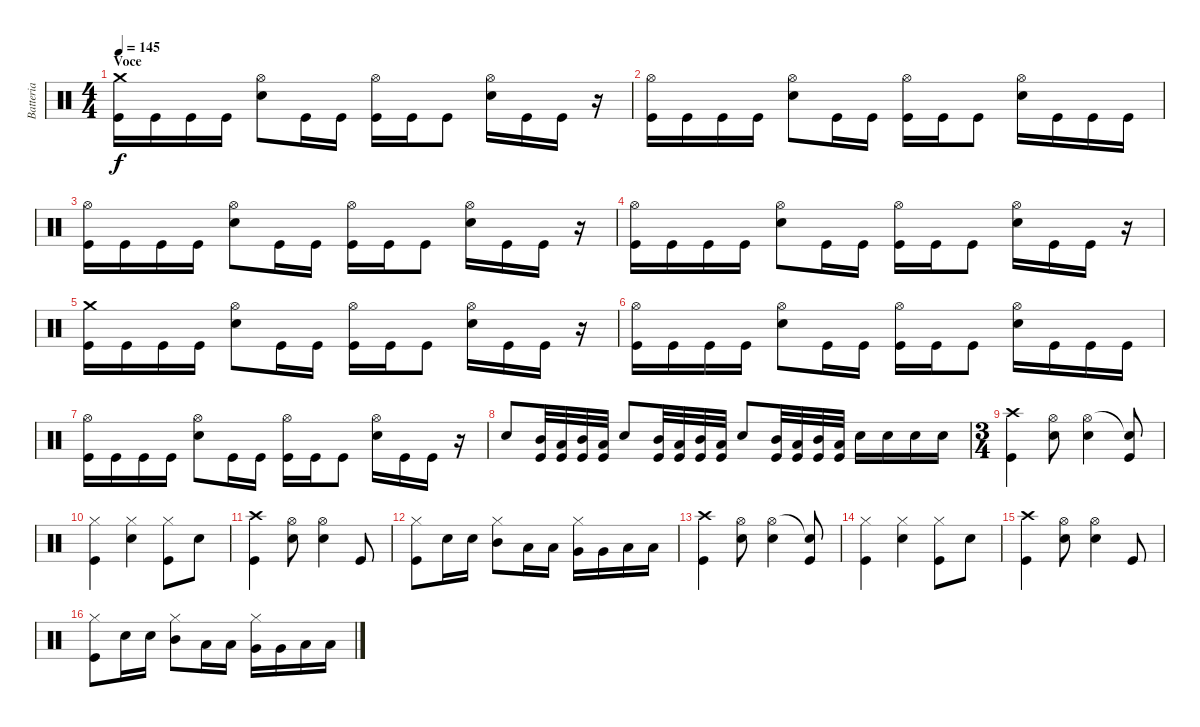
\track ("Batteria" "Batteria") {instrument percussion}
\staff {score}
\articulation defaults
\ts (4 4)
\section ("" "Voce")
\tempo 145
\clef neutral
\ks c
("Crash medium (hit)" "Kick (hit)").16{dy f} "Kick (hit)".16 "Kick (hit)".16 "Kick (hit)".16 ("Hi-Hat (open)" "Electric Snare (hit)").8 "Kick (hit)".16 "Kick (hit)".16 ("Hi-Hat (open)" "Kick (hit)").16 "Kick (hit)".16 "Kick (hit)".8 ("Hi-Hat (open)" "Electric Snare (hit)").16 "Kick (hit)".16 "Kick (hit)".16 r.16 |
("Hi-Hat (open)" "Kick (hit)").16 "Kick (hit)".16 "Kick (hit)".16 "Kick (hit)".16 ("Hi-Hat (open)" "Electric Snare (hit)").8 "Kick (hit)".16 "Kick (hit)".16 ("Hi-Hat (open)" "Kick (hit)").16 "Kick (hit)".16 "Kick (hit)".8 ("Hi-Hat (open)" "Electric Snare (hit)").16 "Kick (hit)".16 "Kick (hit)".16 "Kick (hit)".16 |
("Hi-Hat (open)" "Kick (hit)").16 "Kick (hit)".16 "Kick (hit)".16 "Kick (hit)".16 ("Hi-Hat (open)" "Electric Snare (hit)").8 "Kick (hit)".16 "Kick (hit)".16 ("Hi-Hat (open)" "Kick (hit)").16 "Kick (hit)".16 "Kick (hit)".8 ("Hi-Hat (open)" "Electric Snare (hit)").16 "Kick (hit)".16 "Kick (hit)".16 r.16 |
("Hi-Hat (open)" "Kick (hit)").16 "Kick (hit)".16 "Kick (hit)".16 "Kick (hit)".16 ("Hi-Hat (open)" "Electric Snare (hit)").8 "Kick (hit)".16 "Kick (hit)".16 ("Hi-Hat (open)" "Kick (hit)").16 "Kick (hit)".16 "Kick (hit)".8 ("Hi-Hat (open)" "Electric Snare (hit)").16 "Kick (hit)".16 "Kick (hit)".16 r.16 |
("Crash medium (hit)" "Kick (hit)").16 "Kick (hit)".16 "Kick (hit)".16 "Kick (hit)".16 ("Hi-Hat (open)" "Electric Snare (hit)").8 "Kick (hit)".16 "Kick (hit)".16 ("Hi-Hat (open)" "Kick (hit)").16 "Kick (hit)".16 "Kick (hit)".8 ("Hi-Hat (open)" "Electric Snare (hit)").16 "Kick (hit)".16 "Kick (hit)".16 r.16 |
("Hi-Hat (open)" "Kick (hit)").16 "Kick (hit)".16 "Kick (hit)".16 "Kick (hit)".16 ("Hi-Hat (open)" "Electric Snare (hit)").8 "Kick (hit)".16 "Kick (hit)".16 ("Hi-Hat (open)" "Kick (hit)").16 "Kick (hit)".16 "Kick (hit)".8 ("Hi-Hat (open)" "Electric Snare (hit)").16 "Kick (hit)".16 "Kick (hit)".16 "Kick (hit)".16 |
("Hi-Hat (open)" "Kick (hit)").16 "Kick (hit)".16 "Kick (hit)".16 "Kick (hit)".16 ("Hi-Hat (open)" "Electric Snare (hit)").8 "Kick (hit)".16 "Kick (hit)".16 ("Hi-Hat (open)" "Kick (hit)").16 "Kick (hit)".16 "Kick (hit)".8 ("Hi-Hat (open)" "Electric Snare (hit)").16 "Kick (hit)".16 "Kick (hit)".16 r.16 |
"Electric Snare (hit)".8 ("Mid Tom (hit)" "Kick (hit)").32 ("Low Tom (hit)" "Kick (hit)").32 ("Mid Tom (hit)" "Kick (hit)").32 ("Low Tom (hit)" "Kick (hit)").32 "Electric Snare (hit)".8 ("Mid Tom (hit)" "Kick (hit)").32 ("Low Tom (hit)" "Kick (hit)").32 ("Mid Tom (hit)" "Kick (hit)").32 ("Low Tom (hit)" "Kick (hit)").32 "Electric Snare (hit)".8 ("Mid Tom (hit)" "Kick (hit)").32 ("Low Tom (hit)" "Kick (hit)").32 ("Mid Tom (hit)" "Kick (hit)").32 ("Low Tom (hit)" "Kick (hit)").32 "Electric Snare (hit)".16 "Electric Snare (hit)".16 "Electric Snare (hit)".16 "Electric Snare (hit)".16 |
\ts (3 4)
("Crash high (hit)" "Kick (hit)").4 ("Hi-Hat (open)" "Electric Snare (hit)").8 ("Hi-Hat (open)" "Electric Snare (hit)").4 ("Snare (hit)"{t} "Kick (hit)").8 |
("Hi-Hat (closed)" "Kick (hit)").4 ("Hi-Hat (closed)" "Electric Snare (hit)").4 ("Hi-Hat (closed)" "Kick (hit)").8 "Electric Snare (hit)".8 |
("Crash high (hit)" "Kick (hit)").4 ("Hi-Hat (open)" "Electric Snare (hit)").8 ("Hi-Hat (open)" "Electric Snare (hit)").4 "Kick (hit)".8 |
("Hi-Hat (closed)" "Kick (hit)").8 "Electric Snare (hit)".16 "Electric Snare (hit)".16 ("Hi-Hat (closed)" "Mid Tom (hit)").8 "Low Tom (hit)".16 "Low Tom (hit)".16 ("Hi-Hat (closed)" "Very Low Tom (hit)").16 "Very Low Tom (hit)".16 "Low Floor Tom (hit)".16 "Low Floor Tom (hit)".16 |
("Crash high (hit)" "Kick (hit)").4 ("Hi-Hat (open)" "Electric Snare (hit)").8 ("Hi-Hat (open)" "Electric Snare (hit)").4 ("Snare (hit)"{t} "Kick (hit)").8 |
("Hi-Hat (closed)" "Kick (hit)").4 ("Hi-Hat (closed)" "Electric Snare (hit)").4 ("Hi-Hat (closed)" "Kick (hit)").8 "Electric Snare (hit)".8 |
("Crash high (hit)" "Kick (hit)").4 ("Hi-Hat (open)" "Electric Snare (hit)").8 ("Hi-Hat (open)" "Electric Snare (hit)").4 "Kick (hit)".8 |
("Hi-Hat (closed)" "Kick (hit)").8 "Electric Snare (hit)".16 "Electric Snare (hit)".16 ("Hi-Hat (closed)" "Mid Tom (hit)").8 "Low Tom (hit)".16 "Low Tom (hit)".16 ("Hi-Hat (closed)" "Very Low Tom (hit)").16 "Very Low Tom (hit)".16 "Low Floor Tom (hit)".16 "Low Floor Tom (hit)".16
